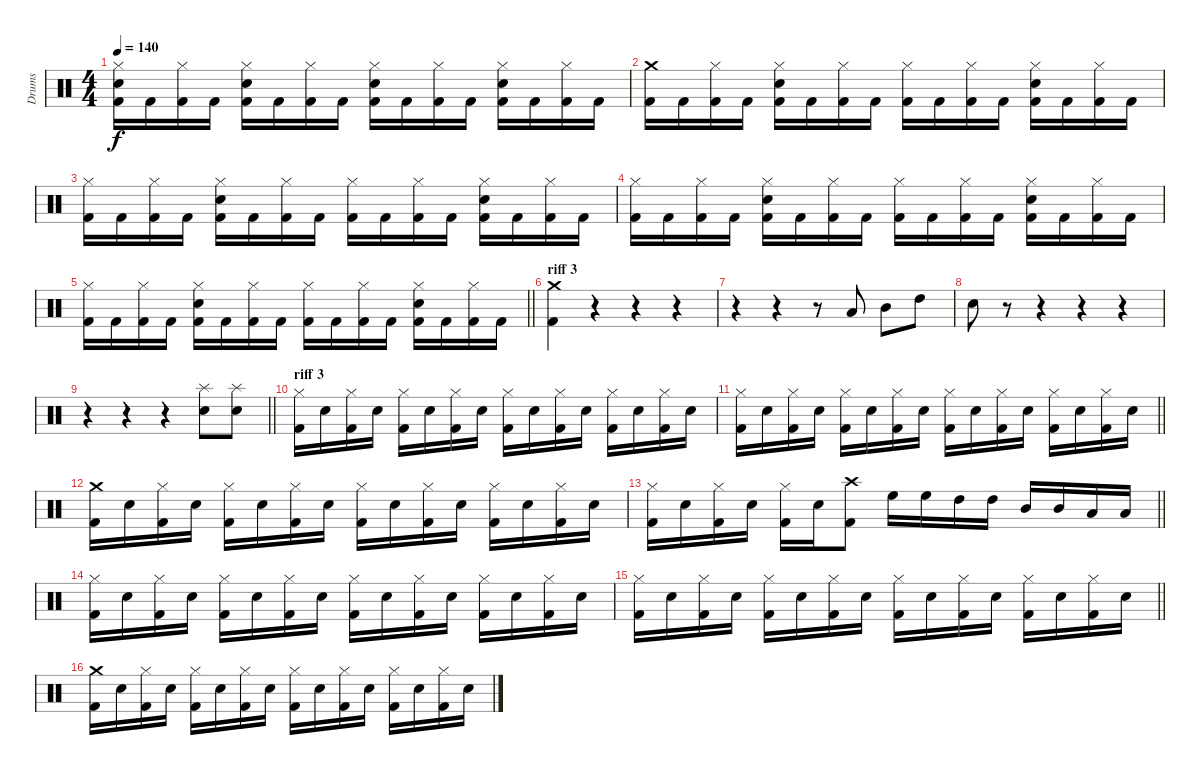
\track ("Drums" "Drums") {instrument percussion}
\staff {score}
\articulation defaults
\ts (4 4)
\tempo 140
\clef neutral
\ks c
("Kick (hit) 2" "Snare (hit) 2" "Hi-Hat (closed)").16{dy f} "Kick (hit) 2".16 ("Kick (hit) 2" "Hi-Hat (closed)").16 "Kick (hit) 2".16 ("Kick (hit) 2" "Snare (hit) 2" "Hi-Hat (closed)").16 "Kick (hit) 2".16 ("Kick (hit) 2" "Hi-Hat (closed)").16 "Kick (hit) 2".16 ("Kick (hit) 2" "Snare (hit) 2" "Hi-Hat (closed)").16 "Kick (hit) 2".16 ("Kick (hit) 2" "Hi-Hat (closed)").16 "Kick (hit) 2".16 ("Kick (hit) 2" "Snare (hit) 2" "Hi-Hat (closed)").16 "Kick (hit) 2".16 ("Kick (hit) 2" "Hi-Hat (closed)").16 "Kick (hit) 2".16 |
("Kick (hit) 2" "Crash medium (hit)").16 "Kick (hit) 2".16 ("Kick (hit) 2" "Hi-Hat (closed)").16 "Kick (hit) 2".16 ("Kick (hit) 2" "Snare (hit) 2" "Hi-Hat (closed)").16 "Kick (hit) 2".16 ("Kick (hit) 2" "Hi-Hat (closed)").16 "Kick (hit) 2".16 ("Kick (hit) 2" "Hi-Hat (closed)").16 "Kick (hit) 2".16 ("Kick (hit) 2" "Hi-Hat (closed)").16 "Kick (hit) 2".16 ("Kick (hit) 2" "Snare (hit) 2" "Hi-Hat (closed)").16 "Kick (hit) 2".16 ("Kick (hit) 2" "Hi-Hat (closed)").16 "Kick (hit) 2".16 |
("Kick (hit) 2" "Hi-Hat (closed)").16 "Kick (hit) 2".16 ("Kick (hit) 2" "Hi-Hat (closed)").16 "Kick (hit) 2".16 ("Kick (hit) 2" "Snare (hit) 2" "Hi-Hat (closed)").16 "Kick (hit) 2".16 ("Kick (hit) 2" "Hi-Hat (closed)").16 "Kick (hit) 2".16 ("Kick (hit) 2" "Hi-Hat (closed)").16 "Kick (hit) 2".16 ("Kick (hit) 2" "Hi-Hat (closed)").16 "Kick (hit) 2".16 ("Kick (hit) 2" "Snare (hit) 2" "Hi-Hat (closed)").16 "Kick (hit) 2".16 ("Kick (hit) 2" "Hi-Hat (closed)").16 "Kick (hit) 2".16 |
("Kick (hit) 2" "Hi-Hat (closed)").16 "Kick (hit) 2".16 ("Kick (hit) 2" "Hi-Hat (closed)").16 "Kick (hit) 2".16 ("Kick (hit) 2" "Snare (hit) 2" "Hi-Hat (closed)").16 "Kick (hit) 2".16 ("Kick (hit) 2" "Hi-Hat (closed)").16 "Kick (hit) 2".16 ("Kick (hit) 2" "Hi-Hat (closed)").16 "Kick (hit) 2".16 ("Kick (hit) 2" "Hi-Hat (closed)").16 "Kick (hit) 2".16 ("Kick (hit) 2" "Snare (hit) 2" "Hi-Hat (closed)").16 "Kick (hit) 2".16 ("Kick (hit) 2" "Hi-Hat (closed)").16 "Kick (hit) 2".16 |
\barLineRight lightlight
("Kick (hit) 2" "Hi-Hat (closed)").16 "Kick (hit) 2".16 ("Kick (hit) 2" "Hi-Hat (closed)").16 "Kick (hit) 2".16 ("Kick (hit) 2" "Snare (hit) 2" "Hi-Hat (closed)").16 "Kick (hit) 2".16 ("Kick (hit) 2" "Hi-Hat (closed)").16 "Kick (hit) 2".16 ("Kick (hit) 2" "Hi-Hat (closed)").16 "Kick (hit) 2".16 ("Kick (hit) 2" "Hi-Hat (closed)").16 "Kick (hit) 2".16 ("Kick (hit) 2" "Snare (hit) 2" "Hi-Hat (closed)").16 "Kick (hit) 2".16 ("Kick (hit) 2" "Hi-Hat (closed)").16 "Kick (hit) 2".16 |
\section ("" "riff 3")
("Kick (hit) 2" "Crash medium (hit)").4 r.4 r.4 r.4 |
r.4 r.4 r.8 "Low Tom (hit)".8 "Mid Tom (hit)".8 "High Tom (hit)".8 |
"Snare (hit) 2".8 r.8 r.4 r.4 r.4 |
\barLineRight lightlight
r.4 r.4 r.4 ("Snare (hit) 2" "Splash (hit)").8 ("Snare (hit) 2" "Splash (hit)").8 |
\section ("" "riff 3")
("Kick (hit) 2" "Hi-Hat (closed)").16 "Snare (hit) 2".16 ("Kick (hit) 2" "Hi-Hat (closed)").16 "Snare (hit) 2".16 ("Kick (hit) 2" "Hi-Hat (closed)").16 "Snare (hit) 2".16 ("Kick (hit) 2" "Hi-Hat (closed)").16 "Snare (hit) 2".16 ("Kick (hit) 2" "Hi-Hat (closed)").16 "Snare (hit) 2".16 ("Kick (hit) 2" "Hi-Hat (closed)").16 "Snare (hit) 2".16 ("Kick (hit) 2" "Hi-Hat (closed)").16 "Snare (hit) 2".16 ("Kick (hit) 2" "Hi-Hat (closed)").16 "Snare (hit) 2".16 |
\barLineRight lightlight
("Kick (hit) 2" "Hi-Hat (closed)").16 "Snare (hit) 2".16 ("Kick (hit) 2" "Hi-Hat (closed)").16 "Snare (hit) 2".16 ("Kick (hit) 2" "Hi-Hat (closed)").16 "Snare (hit) 2".16 ("Kick (hit) 2" "Hi-Hat (closed)").16 "Snare (hit) 2".16 ("Kick (hit) 2" "Hi-Hat (closed)").16 "Snare (hit) 2".16 ("Kick (hit) 2" "Hi-Hat (closed)").16 "Snare (hit) 2".16 ("Kick (hit) 2" "Hi-Hat (closed)").16 "Snare (hit) 2".16 ("Kick (hit) 2" "Hi-Hat (closed)").16 "Snare (hit) 2".16 |
("Kick (hit) 2" "Crash medium (hit)").16 "Snare (hit) 2".16 ("Kick (hit) 2" "Hi-Hat (closed)").16 "Snare (hit) 2".16 ("Kick (hit) 2" "Hi-Hat (closed)").16 "Snare (hit) 2".16 ("Kick (hit) 2" "Hi-Hat (closed)").16 "Snare (hit) 2".16 ("Kick (hit) 2" "Hi-Hat (closed)").16 "Snare (hit) 2".16 ("Kick (hit) 2" "Hi-Hat (closed)").16 "Snare (hit) 2".16 ("Kick (hit) 2" "Hi-Hat (closed)").16 "Snare (hit) 2".16 ("Kick (hit) 2" "Hi-Hat (closed)").16 "Snare (hit) 2".16 |
\barLineRight lightlight
("Kick (hit) 2" "Hi-Hat (closed)").16 "Snare (hit) 2".16 ("Kick (hit) 2" "Hi-Hat (closed)").16 "Snare (hit) 2".16 ("Kick (hit) 2" "Hi-Hat (closed)").16 "Snare (hit) 2".16 ("Kick (hit) 2" "Crash high (hit)").8 "High Floor Tom (hit)".16 "High Floor Tom (hit)".16 "High Tom (hit)".16 "High Tom (hit)".16 "Mid Tom (hit)".16 "Mid Tom (hit)".16 "Low Tom (hit)".16 "Low Tom (hit)".16 |
("Kick (hit) 2" "Hi-Hat (closed)").16 "Snare (hit) 2".16 ("Kick (hit) 2" "Hi-Hat (closed)").16 "Snare (hit) 2".16 ("Kick (hit) 2" "Hi-Hat (closed)").16 "Snare (hit) 2".16 ("Kick (hit) 2" "Hi-Hat (closed)").16 "Snare (hit) 2".16 ("Kick (hit) 2" "Hi-Hat (closed)").16 "Snare (hit) 2".16 ("Kick (hit) 2" "Hi-Hat (closed)").16 "Snare (hit) 2".16 ("Kick (hit) 2" "Hi-Hat (closed)").16 "Snare (hit) 2".16 ("Kick (hit) 2" "Hi-Hat (closed)").16 "Snare (hit) 2".16 |
\barLineRight lightlight
("Kick (hit) 2" "Hi-Hat (closed)").16 "Snare (hit) 2".16 ("Kick (hit) 2" "Hi-Hat (closed)").16 "Snare (hit) 2".16 ("Kick (hit) 2" "Hi-Hat (closed)").16 "Snare (hit) 2".16 ("Kick (hit) 2" "Hi-Hat (closed)").16 "Snare (hit) 2".16 ("Kick (hit) 2" "Hi-Hat (closed)").16 "Snare (hit) 2".16 ("Kick (hit) 2" "Hi-Hat (closed)").16 "Snare (hit) 2".16 ("Kick (hit) 2" "Hi-Hat (closed)").16 "Snare (hit) 2".16 ("Kick (hit) 2" "Hi-Hat (closed)").16 "Snare (hit) 2".16 |
("Kick (hit) 2" "Crash medium (hit)").16 "Snare (hit) 2".16 ("Kick (hit) 2" "Hi-Hat (closed)").16 "Snare (hit) 2".16 ("Kick (hit) 2" "Hi-Hat (closed)").16 "Snare (hit) 2".16 ("Kick (hit) 2" "Hi-Hat (closed)").16 "Snare (hit) 2".16 ("Kick (hit) 2" "Hi-Hat (closed)").16 "Snare (hit) 2".16 ("Kick (hit) 2" "Hi-Hat (closed)").16 "Snare (hit) 2".16 ("Kick (hit) 2" "Hi-Hat (closed)").16 "Snare (hit) 2".16 ("Kick (hit) 2" "Hi-Hat (closed)").16 "Snare (hit) 2".16
